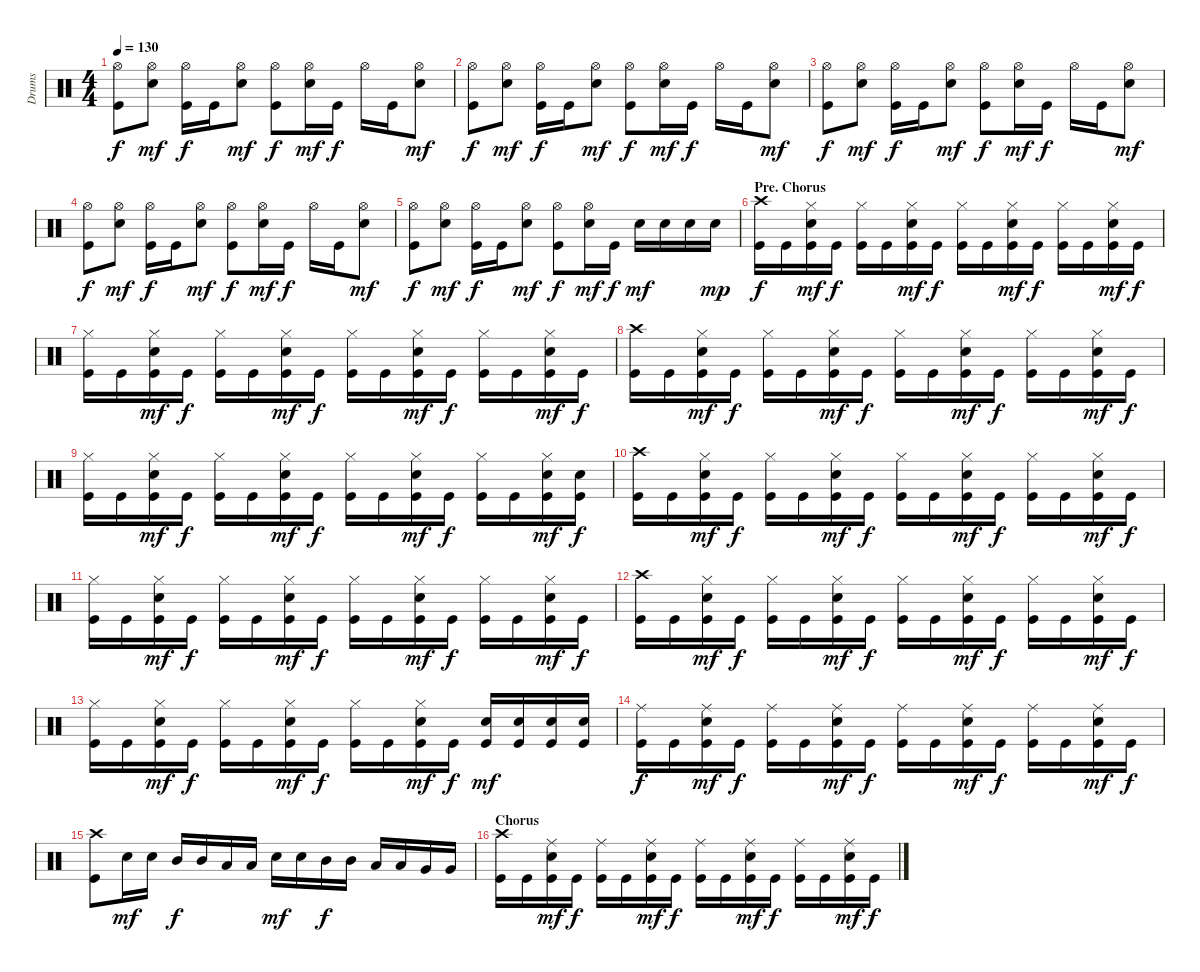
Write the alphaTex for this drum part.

\track ("Drums" "Drums") {instrument percussion}
\staff {score}
\articulation defaults
\ts (4 4)
\tempo 130
\clef neutral
\ks c
("Hi-Hat (open)" "Kick (hit)").8{dy f} ("Hi-Hat (open)" "Snare (hit) 2").8{dy mf} ("Hi-Hat (open)" "Kick (hit)").16{dy f} "Kick (hit)".16 ("Hi-Hat (open)" "Snare (hit) 2").8{dy mf} ("Hi-Hat (open)" "Kick (hit)").8{dy f} ("Hi-Hat (open)" "Snare (hit) 2").16{dy mf} "Kick (hit)".16{dy f} "Hi-Hat (open)".16 "Kick (hit)".16 ("Hi-Hat (open)" "Snare (hit) 2").8{dy mf} |
("Hi-Hat (open)" "Kick (hit)").8{dy f} ("Hi-Hat (open)" "Snare (hit) 2").8{dy mf} ("Hi-Hat (open)" "Kick (hit)").16{dy f} "Kick (hit)".16 ("Hi-Hat (open)" "Snare (hit) 2").8{dy mf} ("Hi-Hat (open)" "Kick (hit)").8{dy f} ("Hi-Hat (open)" "Snare (hit) 2").16{dy mf} "Kick (hit)".16{dy f} "Hi-Hat (open)".16 "Kick (hit)".16 ("Hi-Hat (open)" "Snare (hit) 2").8{dy mf} |
("Hi-Hat (open)" "Kick (hit)").8{dy f} ("Hi-Hat (open)" "Snare (hit) 2").8{dy mf} ("Hi-Hat (open)" "Kick (hit)").16{dy f} "Kick (hit)".16 ("Hi-Hat (open)" "Snare (hit) 2").8{dy mf} ("Hi-Hat (open)" "Kick (hit)").8{dy f} ("Hi-Hat (open)" "Snare (hit) 2").16{dy mf} "Kick (hit)".16{dy f} "Hi-Hat (open)".16 "Kick (hit)".16 ("Hi-Hat (open)" "Snare (hit) 2").8{dy mf} |
("Hi-Hat (open)" "Kick (hit)").8{dy f} ("Hi-Hat (open)" "Snare (hit) 2").8{dy mf} ("Hi-Hat (open)" "Kick (hit)").16{dy f} "Kick (hit)".16 ("Hi-Hat (open)" "Snare (hit) 2").8{dy mf} ("Hi-Hat (open)" "Kick (hit)").8{dy f} ("Hi-Hat (open)" "Snare (hit) 2").16{dy mf} "Kick (hit)".16{dy f} "Hi-Hat (open)".16 "Kick (hit)".16 ("Hi-Hat (open)" "Snare (hit) 2").8{dy mf} |
("Hi-Hat (open)" "Kick (hit)").8{dy f} ("Hi-Hat (open)" "Snare (hit) 2").8{dy mf} ("Hi-Hat (open)" "Kick (hit)").16{dy f} "Kick (hit)".16 ("Hi-Hat (open)" "Snare (hit) 2").8{dy mf} ("Hi-Hat (open)" "Kick (hit)").8{dy f} ("Hi-Hat (open)" "Snare (hit) 2").16{dy mf} "Kick (hit)".16{dy f} "Snare (hit) 2".16{dy mf} "Snare (hit) 2".16 "Snare (hit) 2".16 "Snare (hit) 2".16{dy mp} |
\section ("" "Pre. Chorus")
("Crash high (hit)" "Kick (hit)").16{dy f} "Kick (hit)".16 ("Hi-Hat (closed)" "Snare (hit) 2" "Kick (hit)").16{dy mf} "Kick (hit)".16{dy f} ("Hi-Hat (closed)" "Kick (hit)").16 "Kick (hit)".16 ("Hi-Hat (closed)" "Snare (hit) 2" "Kick (hit)").16{dy mf} "Kick (hit)".16{dy f} ("Hi-Hat (closed)" "Kick (hit)").16 "Kick (hit)".16 ("Hi-Hat (closed)" "Snare (hit) 2" "Kick (hit)").16{dy mf} "Kick (hit)".16{dy f} ("Hi-Hat (closed)" "Kick (hit)").16 "Kick (hit)".16 ("Hi-Hat (closed)" "Snare (hit) 2" "Kick (hit)").16{dy mf} "Kick (hit)".16{dy f} |
("Hi-Hat (closed)" "Kick (hit)").16 "Kick (hit)".16 ("Hi-Hat (closed)" "Snare (hit) 2" "Kick (hit)").16{dy mf} "Kick (hit)".16{dy f} ("Hi-Hat (closed)" "Kick (hit)").16 "Kick (hit)".16 ("Hi-Hat (closed)" "Snare (hit) 2" "Kick (hit)").16{dy mf} "Kick (hit)".16{dy f} ("Hi-Hat (closed)" "Kick (hit)").16 "Kick (hit)".16 ("Hi-Hat (closed)" "Snare (hit) 2" "Kick (hit)").16{dy mf} "Kick (hit)".16{dy f} ("Hi-Hat (closed)" "Kick (hit)").16 "Kick (hit)".16 ("Hi-Hat (closed)" "Snare (hit) 2" "Kick (hit)").16{dy mf} "Kick (hit)".16{dy f} |
("Crash high (hit)" "Kick (hit)").16 "Kick (hit)".16 ("Hi-Hat (closed)" "Snare (hit) 2" "Kick (hit)").16{dy mf} "Kick (hit)".16{dy f} ("Hi-Hat (closed)" "Kick (hit)").16 "Kick (hit)".16 ("Hi-Hat (closed)" "Snare (hit) 2" "Kick (hit)").16{dy mf} "Kick (hit)".16{dy f} ("Hi-Hat (closed)" "Kick (hit)").16 "Kick (hit)".16 ("Hi-Hat (closed)" "Snare (hit) 2" "Kick (hit)").16{dy mf} "Kick (hit)".16{dy f} ("Hi-Hat (closed)" "Kick (hit)").16 "Kick (hit)".16 ("Hi-Hat (closed)" "Snare (hit) 2" "Kick (hit)").16{dy mf} "Kick (hit)".16{dy f} |
("Hi-Hat (closed)" "Kick (hit)").16 "Kick (hit)".16 ("Hi-Hat (closed)" "Snare (hit) 2" "Kick (hit)").16{dy mf} "Kick (hit)".16{dy f} ("Hi-Hat (closed)" "Kick (hit)").16 "Kick (hit)".16 ("Hi-Hat (closed)" "Snare (hit) 2" "Kick (hit)").16{dy mf} "Kick (hit)".16{dy f} ("Hi-Hat (closed)" "Kick (hit)").16 "Kick (hit)".16 ("Hi-Hat (closed)" "Snare (hit) 2" "Kick (hit)").16{dy mf} "Kick (hit)".16{dy f} ("Hi-Hat (closed)" "Kick (hit)").16 "Kick (hit)".16 ("Hi-Hat (closed)" "Snare (hit) 2" "Kick (hit)").16{dy mf} ("Snare (hit) 2" "Kick (hit)").16{dy f} |
("Crash high (hit)" "Kick (hit)").16 "Kick (hit)".16 ("Hi-Hat (closed)" "Snare (hit) 2" "Kick (hit)").16{dy mf} "Kick (hit)".16{dy f} ("Hi-Hat (closed)" "Kick (hit)").16 "Kick (hit)".16 ("Hi-Hat (closed)" "Snare (hit) 2" "Kick (hit)").16{dy mf} "Kick (hit)".16{dy f} ("Hi-Hat (closed)" "Kick (hit)").16 "Kick (hit)".16 ("Hi-Hat (closed)" "Snare (hit) 2" "Kick (hit)").16{dy mf} "Kick (hit)".16{dy f} ("Hi-Hat (closed)" "Kick (hit)").16 "Kick (hit)".16 ("Hi-Hat (closed)" "Snare (hit) 2" "Kick (hit)").16{dy mf} "Kick (hit)".16{dy f} |
("Hi-Hat (closed)" "Kick (hit)").16 "Kick (hit)".16 ("Hi-Hat (closed)" "Snare (hit) 2" "Kick (hit)").16{dy mf} "Kick (hit)".16{dy f} ("Hi-Hat (closed)" "Kick (hit)").16 "Kick (hit)".16 ("Hi-Hat (closed)" "Snare (hit) 2" "Kick (hit)").16{dy mf} "Kick (hit)".16{dy f} ("Hi-Hat (closed)" "Kick (hit)").16 "Kick (hit)".16 ("Hi-Hat (closed)" "Snare (hit) 2" "Kick (hit)").16{dy mf} "Kick (hit)".16{dy f} ("Hi-Hat (closed)" "Kick (hit)").16 "Kick (hit)".16 ("Hi-Hat (closed)" "Snare (hit) 2" "Kick (hit)").16{dy mf} "Kick (hit)".16{dy f} |
("Crash high (hit)" "Kick (hit)").16 "Kick (hit)".16 ("Hi-Hat (closed)" "Snare (hit) 2" "Kick (hit)").16{dy mf} "Kick (hit)".16{dy f} ("Hi-Hat (closed)" "Kick (hit)").16 "Kick (hit)".16 ("Hi-Hat (closed)" "Snare (hit) 2" "Kick (hit)").16{dy mf} "Kick (hit)".16{dy f} ("Hi-Hat (closed)" "Kick (hit)").16 "Kick (hit)".16 ("Hi-Hat (closed)" "Snare (hit) 2" "Kick (hit)").16{dy mf} "Kick (hit)".16{dy f} ("Hi-Hat (closed)" "Kick (hit)").16 "Kick (hit)".16 ("Hi-Hat (closed)" "Snare (hit) 2" "Kick (hit)").16{dy mf} "Kick (hit)".16{dy f} |
("Hi-Hat (closed)" "Kick (hit)").16 "Kick (hit)".16 ("Hi-Hat (closed)" "Snare (hit) 2" "Kick (hit)").16{dy mf} "Kick (hit)".16{dy f} ("Hi-Hat (closed)" "Kick (hit)").16 "Kick (hit)".16 ("Hi-Hat (closed)" "Snare (hit) 2" "Kick (hit)").16{dy mf} "Kick (hit)".16{dy f} ("Hi-Hat (closed)" "Kick (hit)").16 "Kick (hit)".16 ("Hi-Hat (closed)" "Snare (hit) 2" "Kick (hit)").16{dy mf} "Kick (hit)".16{dy f} ("Snare (hit) 2" "Kick (hit)").16{dy mf} ("Snare (hit) 2" "Kick (hit)").16 ("Snare (hit) 2" "Kick (hit)").16 ("Snare (hit) 2" "Kick (hit)").16 |
("Ride (middle)" "Kick (hit)").16{dy f} "Kick (hit)".16 ("Ride (middle)" "Snare (hit) 2" "Kick (hit)").16{dy mf} "Kick (hit)".16{dy f} ("Ride (middle)" "Kick (hit)").16 "Kick (hit)".16 ("Ride (middle)" "Snare (hit) 2" "Kick (hit)").16{dy mf} "Kick (hit)".16{dy f} ("Ride (middle)" "Kick (hit)").16 "Kick (hit)".16 ("Ride (middle)" "Snare (hit) 2" "Kick (hit)").16{dy mf} "Kick (hit)".16{dy f} ("Ride (middle)" "Kick (hit)").16 "Kick (hit)".16 ("Ride (middle)" "Snare (hit) 2" "Kick (hit)").16{dy mf} "Kick (hit)".16{dy f} |
("Crash high (hit)" "Kick (hit)").8 "Snare (hit) 2".16{dy mf} "Snare (hit) 2".16 "Mid Tom (hit)".16{dy f} "Mid Tom (hit)".16 "Low Tom (hit)".16 "Low Tom (hit)".16 "Snare (hit) 2".16{dy mf} "Snare (hit) 2".16 "Mid Tom (hit)".16{dy f} "Mid Tom (hit)".16 "Low Tom (hit)".16 "Low Tom (hit)".16 "Very Low Tom (hit)".16 "Very Low Tom (hit)".16 |
\section ("" "Chorus")
("Crash high (hit)" "Kick (hit)").16 "Kick (hit)".16 ("Ride (middle)" "Snare (hit) 2" "Kick (hit)").16{dy mf} "Kick (hit)".16{dy f} ("Ride (middle)" "Kick (hit)").16 "Kick (hit)".16 ("Ride (middle)" "Snare (hit) 2" "Kick (hit)").16{dy mf} "Kick (hit)".16{dy f} ("Ride (middle)" "Kick (hit)").16 "Kick (hit)".16 ("Ride (middle)" "Snare (hit) 2" "Kick (hit)").16{dy mf} "Kick (hit)".16{dy f} ("Ride (middle)" "Kick (hit)").16 "Kick (hit)".16 ("Ride (middle)" "Snare (hit) 2" "Kick (hit)").16{dy mf} "Kick (hit)".16{dy f}
